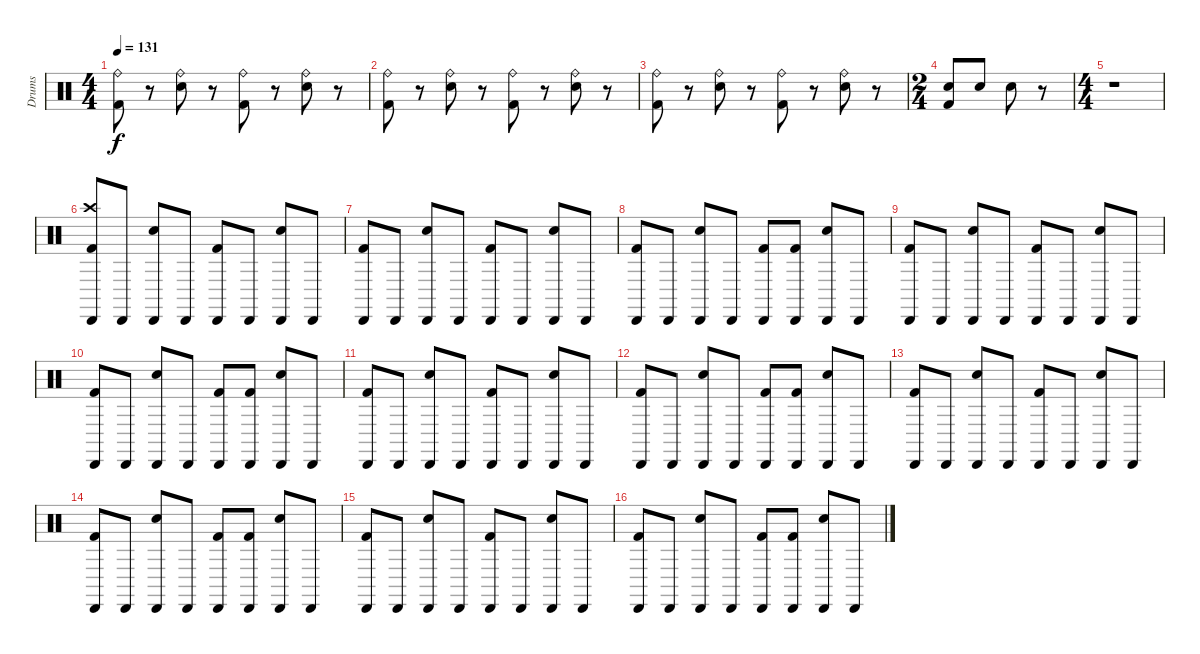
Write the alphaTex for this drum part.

\track ("Drums" "Drums") {instrument percussion}
\staff {score}
\articulation defaults
\ts (4 4)
\tempo 131
\clef neutral
\ks c
("Ride (bell)" "Kick (hit) 2").8{dy f} r.8 ("Ride (bell)" "Electric Snare (hit)").8 r.8 ("Ride (bell)" "Kick (hit) 2").8 r.8 ("Ride (bell)" "Electric Snare (hit)").8 r.8 |
("Ride (bell)" "Kick (hit) 2").8 r.8 ("Ride (bell)" "Electric Snare (hit)").8 r.8 ("Ride (bell)" "Kick (hit) 2").8 r.8 ("Ride (bell)" "Electric Snare (hit)").8 r.8 |
("Ride (bell)" "Kick (hit) 2").8 r.8 ("Ride (bell)" "Electric Snare (hit)").8 r.8 ("Ride (bell)" "Kick (hit) 2").8 r.8 ("Ride (bell)" "Electric Snare (hit)").8 r.8 |
\ts (2 4)
("Electric Snare (hit)" "Kick (hit) 2").8 "Electric Snare (hit)".8 "Electric Snare (hit)".8 r.8 |
\ts (4 4)
r.1 |
("Crash high (hit)" "Cabasa (hit)" "Kick (hit) 2").8 "Cabasa (hit)".8 ("Cabasa (hit)" "Electric Snare (hit)").8 "Cabasa (hit)".8 ("Cabasa (hit)" "Kick (hit) 2").8 "Cabasa (hit)".8 ("Cabasa (hit)" "Electric Snare (hit)").8 "Cabasa (hit)".8 |
("Cabasa (hit)" "Kick (hit) 2").8 "Cabasa (hit)".8 ("Cabasa (hit)" "Electric Snare (hit)").8 "Cabasa (hit)".8 ("Cabasa (hit)" "Kick (hit) 2").8 "Cabasa (hit)".8 ("Cabasa (hit)" "Electric Snare (hit)").8 "Cabasa (hit)".8 |
("Cabasa (hit)" "Kick (hit) 2").8 "Cabasa (hit)".8 ("Cabasa (hit)" "Electric Snare (hit)").8 "Cabasa (hit)".8 ("Cabasa (hit)" "Kick (hit) 2").8 ("Cabasa (hit)" "Kick (hit) 2").8 ("Cabasa (hit)" "Electric Snare (hit)").8 "Cabasa (hit)".8 |
("Cabasa (hit)" "Kick (hit) 2").8 "Cabasa (hit)".8 ("Cabasa (hit)" "Electric Snare (hit)").8 "Cabasa (hit)".8 ("Cabasa (hit)" "Kick (hit) 2").8 "Cabasa (hit)".8 ("Cabasa (hit)" "Electric Snare (hit)").8 "Cabasa (hit)".8 |
("Cabasa (hit)" "Kick (hit) 2").8 "Cabasa (hit)".8 ("Cabasa (hit)" "Electric Snare (hit)").8 "Cabasa (hit)".8 ("Cabasa (hit)" "Kick (hit) 2").8 ("Cabasa (hit)" "Kick (hit) 2").8 ("Cabasa (hit)" "Electric Snare (hit)").8 "Cabasa (hit)".8 |
("Cabasa (hit)" "Kick (hit) 2").8 "Cabasa (hit)".8 ("Cabasa (hit)" "Electric Snare (hit)").8 "Cabasa (hit)".8 ("Cabasa (hit)" "Kick (hit) 2").8 "Cabasa (hit)".8 ("Cabasa (hit)" "Electric Snare (hit)").8 "Cabasa (hit)".8 |
("Cabasa (hit)" "Kick (hit) 2").8 "Cabasa (hit)".8 ("Cabasa (hit)" "Electric Snare (hit)").8 "Cabasa (hit)".8 ("Cabasa (hit)" "Kick (hit) 2").8 ("Cabasa (hit)" "Kick (hit) 2").8 ("Cabasa (hit)" "Electric Snare (hit)").8 "Cabasa (hit)".8 |
("Cabasa (hit)" "Kick (hit) 2").8 "Cabasa (hit)".8 ("Cabasa (hit)" "Electric Snare (hit)").8 "Cabasa (hit)".8 ("Cabasa (hit)" "Kick (hit) 2").8 "Cabasa (hit)".8 ("Cabasa (hit)" "Electric Snare (hit)").8 "Cabasa (hit)".8 |
("Cabasa (hit)" "Kick (hit) 2").8 "Cabasa (hit)".8 ("Cabasa (hit)" "Electric Snare (hit)").8 "Cabasa (hit)".8 ("Cabasa (hit)" "Kick (hit) 2").8 ("Cabasa (hit)" "Kick (hit) 2").8 ("Cabasa (hit)" "Electric Snare (hit)").8 "Cabasa (hit)".8 |
("Cabasa (hit)" "Kick (hit) 2").8 "Cabasa (hit)".8 ("Cabasa (hit)" "Electric Snare (hit)").8 "Cabasa (hit)".8 ("Cabasa (hit)" "Kick (hit) 2").8 "Cabasa (hit)".8 ("Cabasa (hit)" "Electric Snare (hit)").8 "Cabasa (hit)".8 |
("Cabasa (hit)" "Kick (hit) 2").8 "Cabasa (hit)".8 ("Cabasa (hit)" "Electric Snare (hit)").8 "Cabasa (hit)".8 ("Cabasa (hit)" "Kick (hit) 2").8 ("Cabasa (hit)" "Kick (hit) 2").8 ("Cabasa (hit)" "Electric Snare (hit)").8 "Cabasa (hit)".8
